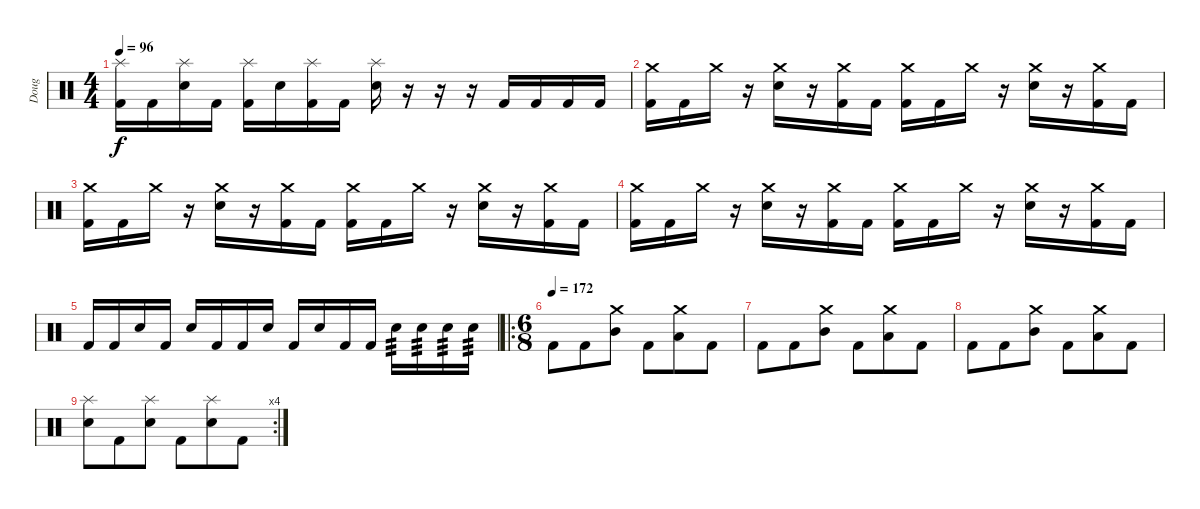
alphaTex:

\track ("Doug" "Doug") {instrument percussion}
\staff {score}
\articulation defaults
\ts (4 4)
\tempo 96
\clef neutral
\ks c
("Kick (hit) 2" "Splash (hit)").16{dy f} "Kick (hit) 2".16 ("Electric Snare (hit)" "Splash (hit)").16 "Kick (hit) 2".16 ("Kick (hit) 2" "Splash (hit)").16 "Electric Snare (hit)".16 ("Kick (hit) 2" "Splash (hit)").16 "Kick (hit) 2".16 ("Electric Snare (hit)" "Splash (hit)").16 r.16 r.16 r.16 "Kick (hit) 2".16 "Kick (hit) 2".16 "Kick (hit) 2".16 "Kick (hit) 2".16 |
("Kick (hit) 2" "Crash medium (hit)").16 "Kick (hit) 2".16 "Crash medium (hit)".16 r.16 ("Electric Snare (hit)" "Crash medium (hit)").16 r.16 ("Kick (hit) 2" "Crash medium (hit)").16 "Kick (hit) 2".16 ("Kick (hit) 2" "Crash medium (hit)").16 "Kick (hit) 2".16 "Crash medium (hit)".16 r.16 ("Electric Snare (hit)" "Crash medium (hit)").16 r.16 ("Kick (hit) 2" "Crash medium (hit)").16 "Kick (hit) 2".16 |
("Kick (hit) 2" "Crash medium (hit)").16 "Kick (hit) 2".16 "Crash medium (hit)".16 r.16 ("Electric Snare (hit)" "Crash medium (hit)").16 r.16 ("Kick (hit) 2" "Crash medium (hit)").16 "Kick (hit) 2".16 ("Kick (hit) 2" "Crash medium (hit)").16 "Kick (hit) 2".16 "Crash medium (hit)".16 r.16 ("Electric Snare (hit)" "Crash medium (hit)").16 r.16 ("Kick (hit) 2" "Crash medium (hit)").16 "Kick (hit) 2".16 |
("Kick (hit) 2" "Crash medium (hit)").16 "Kick (hit) 2".16 "Crash medium (hit)".16 r.16 ("Electric Snare (hit)" "Crash medium (hit)").16 r.16 ("Kick (hit) 2" "Crash medium (hit)").16 "Kick (hit) 2".16 ("Kick (hit) 2" "Crash medium (hit)").16 "Kick (hit) 2".16 "Crash medium (hit)".16 r.16 ("Electric Snare (hit)" "Crash medium (hit)").16 r.16 ("Kick (hit) 2" "Crash medium (hit)").16 "Kick (hit) 2".16 |
"Kick (hit) 2".16 "Kick (hit) 2".16 "Electric Snare (hit)".16 "Kick (hit) 2".16 "Electric Snare (hit)".16 "Kick (hit) 2".16 "Kick (hit) 2".16 "Electric Snare (hit)".16 "Kick (hit) 2".16 "Electric Snare (hit)".16 "Kick (hit) 2".16 "Kick (hit) 2".16 "Electric Snare (hit)".16{tp 3} "Electric Snare (hit)".16{tp 3} "Electric Snare (hit)".16{tp 3} "Electric Snare (hit)".16{tp 3} |
\ro
\ts (6 8)
\tempo (172)
"Kick (hit) 2".8 "Kick (hit) 2".8 ("Mid Tom (hit)" "Crash medium (hit)").8 "Kick (hit) 2".8 ("Low Tom (hit)" "Crash medium (hit)").8 "Kick (hit) 2".8 |
"Kick (hit) 2".8 "Kick (hit) 2".8 ("Mid Tom (hit)" "Crash medium (hit)").8 "Kick (hit) 2".8 ("Low Tom (hit)" "Crash medium (hit)").8 "Kick (hit) 2".8 |
"Kick (hit) 2".8 "Kick (hit) 2".8 ("Mid Tom (hit)" "Crash medium (hit)").8 "Kick (hit) 2".8 ("Low Tom (hit)" "Crash medium (hit)").8 "Kick (hit) 2".8 |
\rc 4
("Electric Snare (hit)" "Splash (hit)").8 "Kick (hit) 2".8 ("Electric Snare (hit)" "Splash (hit)").8 "Kick (hit) 2".8 ("Electric Snare (hit)" "Splash (hit)").8 "Kick (hit) 2".8
